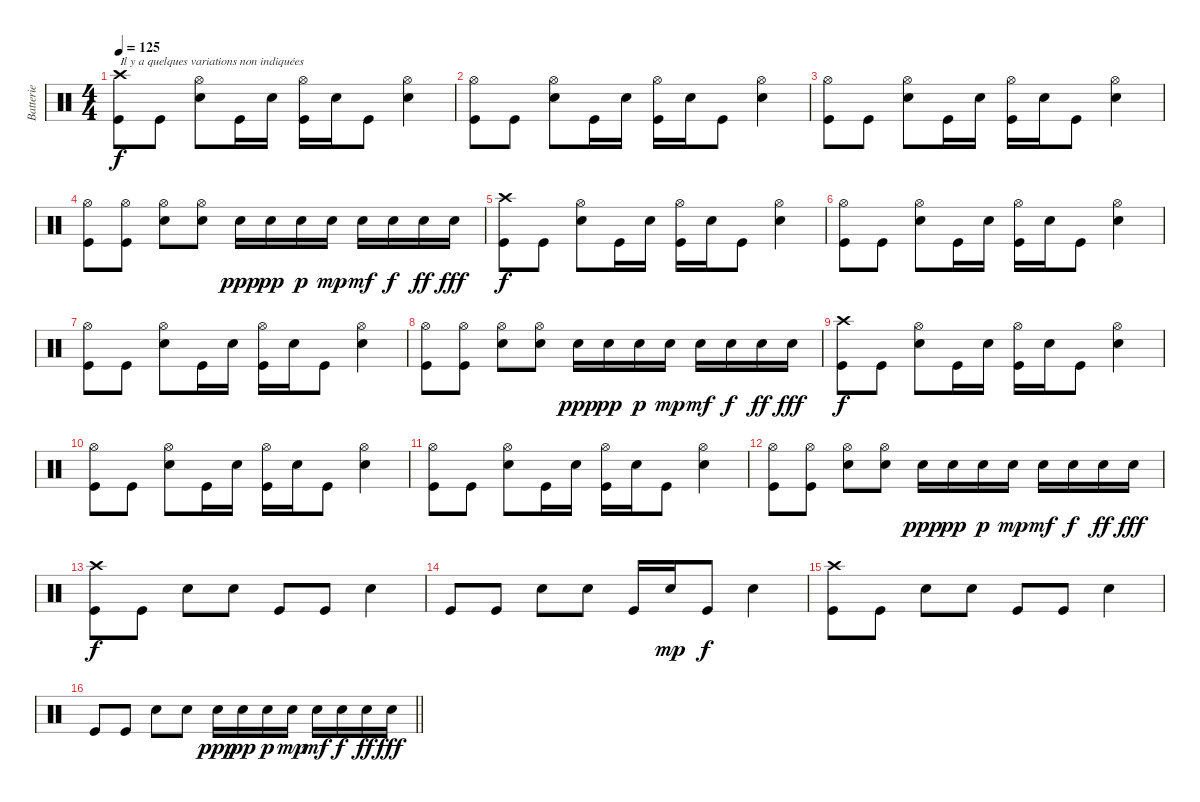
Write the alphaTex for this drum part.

\track ("Batterie" "Batterie") {instrument percussion}
\staff {score}
\articulation defaults
\ts (4 4)
\tempo 125
\clef neutral
\ks c
("Crash high (hit)" "Kick (hit)").8{txt "Il y a quelques variations non indiquées" dy f} "Kick (hit)".8 ("Snare (hit) 2" "Hi-Hat (open)").8 "Kick (hit)".16 "Snare (hit) 2".16 ("Kick (hit)" "Hi-Hat (open)").16 "Snare (hit) 2".16 "Kick (hit)".8 ("Snare (hit) 2" "Hi-Hat (open)").4 |
("Hi-Hat (open)" "Kick (hit)").8 "Kick (hit)".8 ("Snare (hit) 2" "Hi-Hat (open)").8 "Kick (hit)".16 "Snare (hit) 2".16 ("Kick (hit)" "Hi-Hat (open)").16 "Snare (hit) 2".16 "Kick (hit)".8 ("Snare (hit) 2" "Hi-Hat (open)").4 |
("Hi-Hat (open)" "Kick (hit)").8 "Kick (hit)".8 ("Snare (hit) 2" "Hi-Hat (open)").8 "Kick (hit)".16 "Snare (hit) 2".16 ("Kick (hit)" "Hi-Hat (open)").16 "Snare (hit) 2".16 "Kick (hit)".8 ("Snare (hit) 2" "Hi-Hat (open)").4 |
("Hi-Hat (open)" "Kick (hit)").8 ("Kick (hit)" "Hi-Hat (open)").8 ("Snare (hit) 2" "Hi-Hat (open)").8 ("Hi-Hat (open)" "Snare (hit) 2").8 "Snare (hit) 2".16{dy ppp} "Snare (hit) 2".16{dy pp} "Snare (hit) 2".16{dy p} "Snare (hit) 2".16{dy mp} "Snare (hit) 2".16{dy mf} "Snare (hit) 2".16{dy f} "Snare (hit) 2".16{dy ff} "Snare (hit) 2".16{dy fff} |
("Crash high (hit)" "Kick (hit)").8{dy f} "Kick (hit)".8 ("Snare (hit) 2" "Hi-Hat (open)").8 "Kick (hit)".16 "Snare (hit) 2".16 ("Kick (hit)" "Hi-Hat (open)").16 "Snare (hit) 2".16 "Kick (hit)".8 ("Snare (hit) 2" "Hi-Hat (open)").4 |
("Hi-Hat (open)" "Kick (hit)").8 "Kick (hit)".8 ("Snare (hit) 2" "Hi-Hat (open)").8 "Kick (hit)".16 "Snare (hit) 2".16 ("Kick (hit)" "Hi-Hat (open)").16 "Snare (hit) 2".16 "Kick (hit)".8 ("Snare (hit) 2" "Hi-Hat (open)").4 |
("Hi-Hat (open)" "Kick (hit)").8 "Kick (hit)".8 ("Snare (hit) 2" "Hi-Hat (open)").8 "Kick (hit)".16 "Snare (hit) 2".16 ("Kick (hit)" "Hi-Hat (open)").16 "Snare (hit) 2".16 "Kick (hit)".8 ("Snare (hit) 2" "Hi-Hat (open)").4 |
("Hi-Hat (open)" "Kick (hit)").8 ("Kick (hit)" "Hi-Hat (open)").8 ("Snare (hit) 2" "Hi-Hat (open)").8 ("Hi-Hat (open)" "Snare (hit) 2").8 "Snare (hit) 2".16{dy ppp} "Snare (hit) 2".16{dy pp} "Snare (hit) 2".16{dy p} "Snare (hit) 2".16{dy mp} "Snare (hit) 2".16{dy mf} "Snare (hit) 2".16{dy f} "Snare (hit) 2".16{dy ff} "Snare (hit) 2".16{dy fff} |
("Crash high (hit)" "Kick (hit)").8{dy f} "Kick (hit)".8 ("Snare (hit) 2" "Hi-Hat (open)").8 "Kick (hit)".16 "Snare (hit) 2".16 ("Kick (hit)" "Hi-Hat (open)").16 "Snare (hit) 2".16 "Kick (hit)".8 ("Snare (hit) 2" "Hi-Hat (open)").4 |
("Hi-Hat (open)" "Kick (hit)").8 "Kick (hit)".8 ("Snare (hit) 2" "Hi-Hat (open)").8 "Kick (hit)".16 "Snare (hit) 2".16 ("Kick (hit)" "Hi-Hat (open)").16 "Snare (hit) 2".16 "Kick (hit)".8 ("Snare (hit) 2" "Hi-Hat (open)").4 |
("Hi-Hat (open)" "Kick (hit)").8 "Kick (hit)".8 ("Snare (hit) 2" "Hi-Hat (open)").8 "Kick (hit)".16 "Snare (hit) 2".16 ("Kick (hit)" "Hi-Hat (open)").16 "Snare (hit) 2".16 "Kick (hit)".8 ("Snare (hit) 2" "Hi-Hat (open)").4 |
("Hi-Hat (open)" "Kick (hit)").8 ("Kick (hit)" "Hi-Hat (open)").8 ("Snare (hit) 2" "Hi-Hat (open)").8 ("Hi-Hat (open)" "Snare (hit) 2").8 "Snare (hit) 2".16{dy ppp} "Snare (hit) 2".16{dy pp} "Snare (hit) 2".16{dy p} "Snare (hit) 2".16{dy mp} "Snare (hit) 2".16{dy mf} "Snare (hit) 2".16{dy f} "Snare (hit) 2".16{dy ff} "Snare (hit) 2".16{dy fff} |
("Kick (hit)" "Crash high (hit)").8{dy f} "Kick (hit)".8 "Snare (hit) 2".8 "Snare (hit) 2".8 "Kick (hit)".8 "Kick (hit)".8 "Snare (hit) 2".4 |
"Kick (hit)".8 "Kick (hit)".8 "Snare (hit) 2".8 "Snare (hit) 2".8 "Kick (hit)".16 "Snare (hit) 2".16{dy mp} "Kick (hit)".8{dy f} "Snare (hit) 2".4 |
("Kick (hit)" "Crash high (hit)").8 "Kick (hit)".8 "Snare (hit) 2".8 "Snare (hit) 2".8 "Kick (hit)".8 "Kick (hit)".8 "Snare (hit) 2".4 |
\barLineRight lightlight "Kick (hit)".8 "Kick (hit)".8 "Snare (hit) 2".8 "Snare (hit) 2".8 "Snare (hit) 2".16{dy ppp} "Snare (hit) 2".16{dy pp} "Snare (hit) 2".16{dy p} "Snare (hit) 2".16{dy mp} "Snare (hit) 2".16{dy mf} "Snare (hit) 2".16{dy f} "Snare (hit) 2".16{dy ff} "Snare (hit) 2".16{dy fff}
